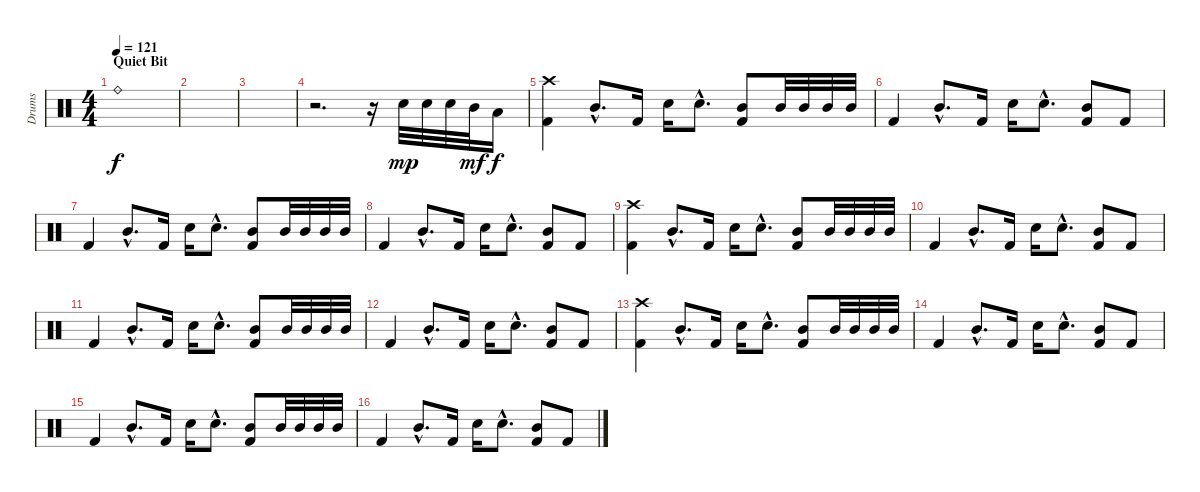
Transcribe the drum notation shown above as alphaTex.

\track ("Drums" "Drums") {instrument percussion}
\staff {score}
\articulation defaults
\ts (4 4)
\section ("" "Quiet Bit")
\tempo 121
\clef neutral
\ks c "Ride (bell)".1{dy f}
|
|
|
r.2{d} r.16 "Snare (hit) 2".32{dy mp} "Snare (hit) 2".32 "Snare (hit) 2".32 "Mid Tom (hit)".32{dy mf} "Low Tom (hit)".16{dy f} |
("Crash high (hit)" "Kick (hit) 2").4 "Mid Tom (hit)"{hac}.8{d} "Kick (hit) 2".16 "Snare (hit) 2".16 "Snare (hit) 2"{hac}.8{d} ("Mid Tom (hit)" "Kick (hit) 2").8 "Mid Tom (hit)".32 "Mid Tom (hit)".32 "Mid Tom (hit)".32 "Mid Tom (hit)".32 |
"Kick (hit) 2".4 "Mid Tom (hit)"{hac}.8{d} "Kick (hit) 2".16 "Snare (hit) 2".16 "Snare (hit) 2"{hac}.8{d} ("Mid Tom (hit)" "Kick (hit) 2").8 "Kick (hit) 2".8 |
"Kick (hit) 2".4 "Mid Tom (hit)"{hac}.8{d} "Kick (hit) 2".16 "Snare (hit) 2".16 "Snare (hit) 2"{hac}.8{d} ("Mid Tom (hit)" "Kick (hit) 2").8 "Mid Tom (hit)".32 "Mid Tom (hit)".32 "Mid Tom (hit)".32 "Mid Tom (hit)".32 |
"Kick (hit) 2".4 "Mid Tom (hit)"{hac}.8{d} "Kick (hit) 2".16 "Snare (hit) 2".16 "Snare (hit) 2"{hac}.8{d} ("Mid Tom (hit)" "Kick (hit) 2").8 "Kick (hit) 2".8 |
("Crash high (hit)" "Kick (hit) 2").4 "Mid Tom (hit)"{hac}.8{d} "Kick (hit) 2".16 "Snare (hit) 2".16 "Snare (hit) 2"{hac}.8{d} ("Mid Tom (hit)" "Kick (hit) 2").8 "Mid Tom (hit)".32 "Mid Tom (hit)".32 "Mid Tom (hit)".32 "Mid Tom (hit)".32 |
"Kick (hit) 2".4 "Mid Tom (hit)"{hac}.8{d} "Kick (hit) 2".16 "Snare (hit) 2".16 "Snare (hit) 2"{hac}.8{d} ("Mid Tom (hit)" "Kick (hit) 2").8 "Kick (hit) 2".8 |
"Kick (hit) 2".4 "Mid Tom (hit)"{hac}.8{d} "Kick (hit) 2".16 "Snare (hit) 2".16 "Snare (hit) 2"{hac}.8{d} ("Mid Tom (hit)" "Kick (hit) 2").8 "Mid Tom (hit)".32 "Mid Tom (hit)".32 "Mid Tom (hit)".32 "Mid Tom (hit)".32 |
"Kick (hit) 2".4 "Mid Tom (hit)"{hac}.8{d} "Kick (hit) 2".16 "Snare (hit) 2".16 "Snare (hit) 2"{hac}.8{d} ("Mid Tom (hit)" "Kick (hit) 2").8 "Kick (hit) 2".8 |
("Crash high (hit)" "Kick (hit) 2").4 "Mid Tom (hit)"{hac}.8{d} "Kick (hit) 2".16 "Snare (hit) 2".16 "Snare (hit) 2"{hac}.8{d} ("Mid Tom (hit)" "Kick (hit) 2").8 "Mid Tom (hit)".32 "Mid Tom (hit)".32 "Mid Tom (hit)".32 "Mid Tom (hit)".32 |
"Kick (hit) 2".4 "Mid Tom (hit)"{hac}.8{d} "Kick (hit) 2".16 "Snare (hit) 2".16 "Snare (hit) 2"{hac}.8{d} ("Mid Tom (hit)" "Kick (hit) 2").8 "Kick (hit) 2".8 |
"Kick (hit) 2".4 "Mid Tom (hit)"{hac}.8{d} "Kick (hit) 2".16 "Snare (hit) 2".16 "Snare (hit) 2"{hac}.8{d} ("Mid Tom (hit)" "Kick (hit) 2").8 "Mid Tom (hit)".32 "Mid Tom (hit)".32 "Mid Tom (hit)".32 "Mid Tom (hit)".32 |
"Kick (hit) 2".4 "Mid Tom (hit)"{hac}.8{d} "Kick (hit) 2".16 "Snare (hit) 2".16 "Snare (hit) 2"{hac}.8{d} ("Mid Tom (hit)" "Kick (hit) 2").8 "Kick (hit) 2".8
